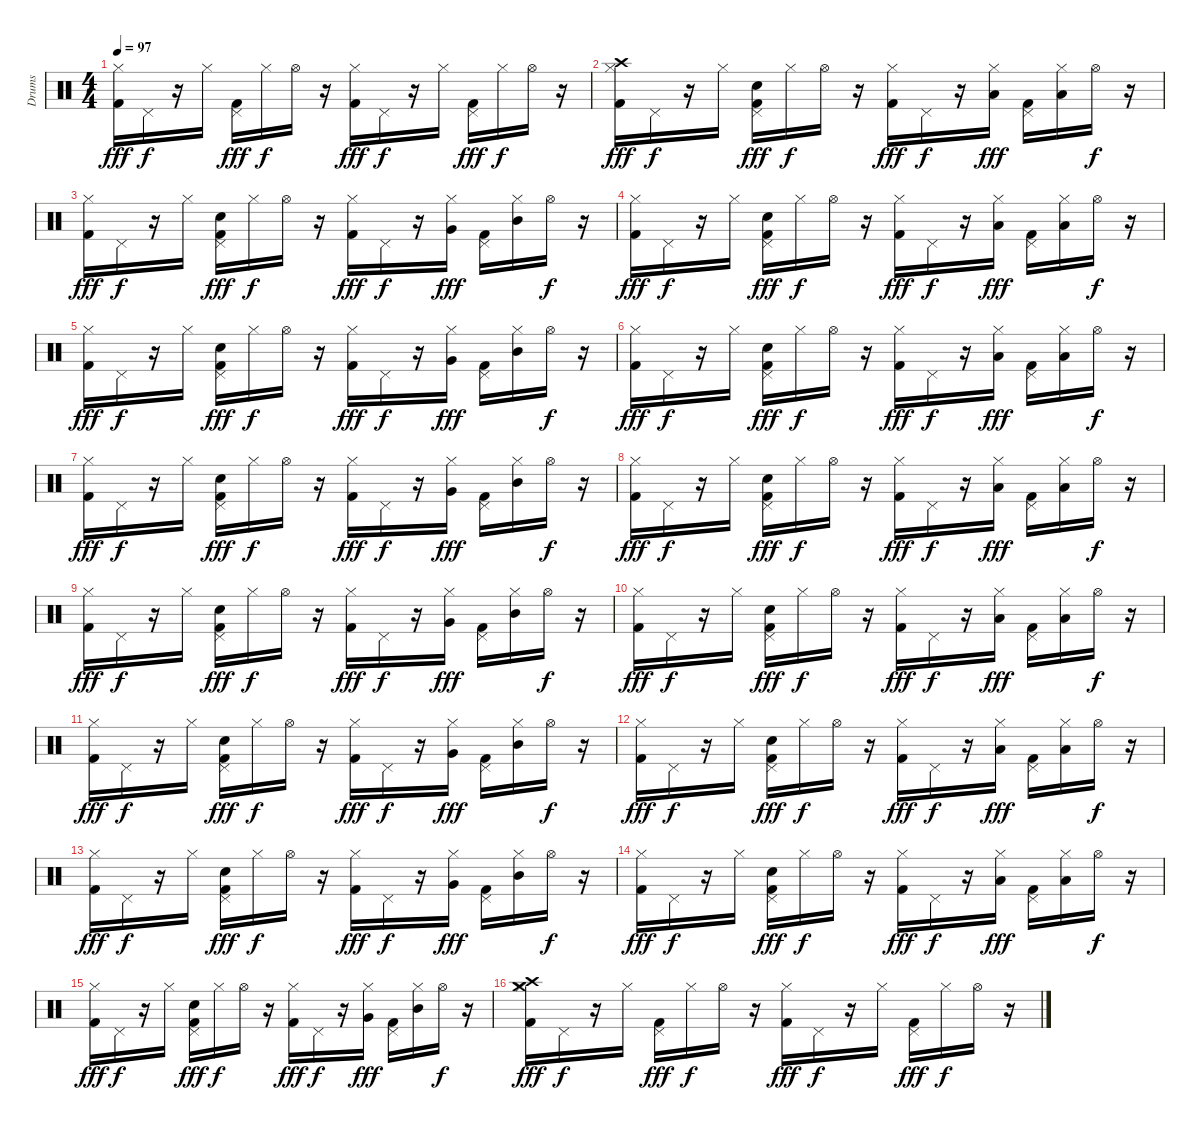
\track ("Drums" "Drums") {instrument percussion}
\staff {score}
\articulation defaults
\ts (4 4)
\tempo 97
\clef neutral
\ks c
("Hi-Hat (closed)" "Kick (hit) 2").16{dy fff} "Pedal Hi-Hat (hit)".16{dy f} r.16 "Hi-Hat (closed)".16 ("Pedal Hi-Hat (hit)" "Kick (hit) 2").16{dy fff} "Hi-Hat (closed)".16{dy f} "Hi-Hat (open)".16 r.16 ("Kick (hit) 2" "Hi-Hat (closed)").16{dy fff} "Pedal Hi-Hat (hit)".16{dy f} r.16 "Hi-Hat (closed)".16 ("Kick (hit) 2" "Pedal Hi-Hat (hit)").16{dy fff} "Hi-Hat (closed)".16{dy f} "Hi-Hat (open)".16 r.16 |
("Crash high (hit)" "Hi-Hat (closed)" "Kick (hit) 2").16{dy fff} "Pedal Hi-Hat (hit)".16{dy f} r.16 "Hi-Hat (closed)".16 ("Snare (hit) 2" "Kick (hit) 2" "Pedal Hi-Hat (hit)").16{dy fff} "Hi-Hat (closed)".16{dy f} "Hi-Hat (open)".16 r.16 ("Hi-Hat (closed)" "Kick (hit) 2").16{dy fff} "Pedal Hi-Hat (hit)".16{dy f} r.16 ("Low Tom (hit)" "Hi-Hat (closed)").16{dy fff} ("Kick (hit) 2" "Pedal Hi-Hat (hit)").16 ("Low Floor Tom (hit)" "Hi-Hat (closed)").16 "Hi-Hat (open)".16{dy f} r.16 |
("Kick (hit) 2" "Hi-Hat (closed)").16{dy fff} "Pedal Hi-Hat (hit)".16{dy f} r.16 "Hi-Hat (closed)".16 ("Electric Snare (hit)" "Pedal Hi-Hat (hit)" "Kick (hit) 2").16{dy fff} "Hi-Hat (closed)".16{dy f} "Hi-Hat (open)".16 r.16 ("Kick (hit) 2" "Hi-Hat (closed)").16{dy fff} "Pedal Hi-Hat (hit)".16{dy f} r.16 ("Very Low Tom (hit)" "Hi-Hat (closed)").16{dy fff} ("Pedal Hi-Hat (hit)" "Kick (hit) 2").16 ("Mid Tom (hit)" "Hi-Hat (closed)").16 "Hi-Hat (open)".16{dy f} r.16 |
("Hi-Hat (closed)" "Kick (hit) 2").16{dy fff} "Pedal Hi-Hat (hit)".16{dy f} r.16 "Hi-Hat (closed)".16 ("Snare (hit) 2" "Kick (hit) 2" "Pedal Hi-Hat (hit)").16{dy fff} "Hi-Hat (closed)".16{dy f} "Hi-Hat (open)".16 r.16 ("Hi-Hat (closed)" "Kick (hit) 2").16{dy fff} "Pedal Hi-Hat (hit)".16{dy f} r.16 ("Low Tom (hit)" "Hi-Hat (closed)").16{dy fff} ("Kick (hit) 2" "Pedal Hi-Hat (hit)").16 ("Low Floor Tom (hit)" "Hi-Hat (closed)").16 "Hi-Hat (open)".16{dy f} r.16 |
("Kick (hit) 2" "Hi-Hat (closed)").16{dy fff} "Pedal Hi-Hat (hit)".16{dy f} r.16 "Hi-Hat (closed)".16 ("Electric Snare (hit)" "Pedal Hi-Hat (hit)" "Kick (hit) 2").16{dy fff} "Hi-Hat (closed)".16{dy f} "Hi-Hat (open)".16 r.16 ("Kick (hit) 2" "Hi-Hat (closed)").16{dy fff} "Pedal Hi-Hat (hit)".16{dy f} r.16 ("Very Low Tom (hit)" "Hi-Hat (closed)").16{dy fff} ("Pedal Hi-Hat (hit)" "Kick (hit) 2").16 ("Mid Tom (hit)" "Hi-Hat (closed)").16 "Hi-Hat (open)".16{dy f} r.16 |
("Hi-Hat (closed)" "Kick (hit) 2").16{dy fff} "Pedal Hi-Hat (hit)".16{dy f} r.16 "Hi-Hat (closed)".16 ("Snare (hit) 2" "Kick (hit) 2" "Pedal Hi-Hat (hit)").16{dy fff} "Hi-Hat (closed)".16{dy f} "Hi-Hat (open)".16 r.16 ("Hi-Hat (closed)" "Kick (hit) 2").16{dy fff} "Pedal Hi-Hat (hit)".16{dy f} r.16 ("Low Tom (hit)" "Hi-Hat (closed)").16{dy fff} ("Kick (hit) 2" "Pedal Hi-Hat (hit)").16 ("Low Floor Tom (hit)" "Hi-Hat (closed)").16 "Hi-Hat (open)".16{dy f} r.16 |
("Kick (hit) 2" "Hi-Hat (closed)").16{dy fff} "Pedal Hi-Hat (hit)".16{dy f} r.16 "Hi-Hat (closed)".16 ("Electric Snare (hit)" "Pedal Hi-Hat (hit)" "Kick (hit) 2").16{dy fff} "Hi-Hat (closed)".16{dy f} "Hi-Hat (open)".16 r.16 ("Kick (hit) 2" "Hi-Hat (closed)").16{dy fff} "Pedal Hi-Hat (hit)".16{dy f} r.16 ("Very Low Tom (hit)" "Hi-Hat (closed)").16{dy fff} ("Pedal Hi-Hat (hit)" "Kick (hit) 2").16 ("Mid Tom (hit)" "Hi-Hat (closed)").16 "Hi-Hat (open)".16{dy f} r.16 |
("Hi-Hat (closed)" "Kick (hit) 2").16{dy fff} "Pedal Hi-Hat (hit)".16{dy f} r.16 "Hi-Hat (closed)".16 ("Snare (hit) 2" "Kick (hit) 2" "Pedal Hi-Hat (hit)").16{dy fff} "Hi-Hat (closed)".16{dy f} "Hi-Hat (open)".16 r.16 ("Hi-Hat (closed)" "Kick (hit) 2").16{dy fff} "Pedal Hi-Hat (hit)".16{dy f} r.16 ("Low Tom (hit)" "Hi-Hat (closed)").16{dy fff} ("Kick (hit) 2" "Pedal Hi-Hat (hit)").16 ("Low Floor Tom (hit)" "Hi-Hat (closed)").16 "Hi-Hat (open)".16{dy f} r.16 |
("Kick (hit) 2" "Hi-Hat (closed)").16{dy fff} "Pedal Hi-Hat (hit)".16{dy f} r.16 "Hi-Hat (closed)".16 ("Electric Snare (hit)" "Pedal Hi-Hat (hit)" "Kick (hit) 2").16{dy fff} "Hi-Hat (closed)".16{dy f} "Hi-Hat (open)".16 r.16 ("Kick (hit) 2" "Hi-Hat (closed)").16{dy fff} "Pedal Hi-Hat (hit)".16{dy f} r.16 ("Very Low Tom (hit)" "Hi-Hat (closed)").16{dy fff} ("Pedal Hi-Hat (hit)" "Kick (hit) 2").16 ("Mid Tom (hit)" "Hi-Hat (closed)").16 "Hi-Hat (open)".16{dy f} r.16 |
("Hi-Hat (closed)" "Kick (hit) 2").16{dy fff} "Pedal Hi-Hat (hit)".16{dy f} r.16 "Hi-Hat (closed)".16 ("Snare (hit) 2" "Kick (hit) 2" "Pedal Hi-Hat (hit)").16{dy fff} "Hi-Hat (closed)".16{dy f} "Hi-Hat (open)".16 r.16 ("Hi-Hat (closed)" "Kick (hit) 2").16{dy fff} "Pedal Hi-Hat (hit)".16{dy f} r.16 ("Low Tom (hit)" "Hi-Hat (closed)").16{dy fff} ("Kick (hit) 2" "Pedal Hi-Hat (hit)").16 ("Low Floor Tom (hit)" "Hi-Hat (closed)").16 "Hi-Hat (open)".16{dy f} r.16 |
("Kick (hit) 2" "Hi-Hat (closed)").16{dy fff} "Pedal Hi-Hat (hit)".16{dy f} r.16 "Hi-Hat (closed)".16 ("Electric Snare (hit)" "Pedal Hi-Hat (hit)" "Kick (hit) 2").16{dy fff} "Hi-Hat (closed)".16{dy f} "Hi-Hat (open)".16 r.16 ("Kick (hit) 2" "Hi-Hat (closed)").16{dy fff} "Pedal Hi-Hat (hit)".16{dy f} r.16 ("Very Low Tom (hit)" "Hi-Hat (closed)").16{dy fff} ("Pedal Hi-Hat (hit)" "Kick (hit) 2").16 ("Mid Tom (hit)" "Hi-Hat (closed)").16 "Hi-Hat (open)".16{dy f} r.16 |
("Hi-Hat (closed)" "Kick (hit) 2").16{dy fff} "Pedal Hi-Hat (hit)".16{dy f} r.16 "Hi-Hat (closed)".16 ("Snare (hit) 2" "Kick (hit) 2" "Pedal Hi-Hat (hit)").16{dy fff} "Hi-Hat (closed)".16{dy f} "Hi-Hat (open)".16 r.16 ("Hi-Hat (closed)" "Kick (hit) 2").16{dy fff} "Pedal Hi-Hat (hit)".16{dy f} r.16 ("Low Tom (hit)" "Hi-Hat (closed)").16{dy fff} ("Kick (hit) 2" "Pedal Hi-Hat (hit)").16 ("Low Floor Tom (hit)" "Hi-Hat (closed)").16 "Hi-Hat (open)".16{dy f} r.16 |
("Kick (hit) 2" "Hi-Hat (closed)").16{dy fff} "Pedal Hi-Hat (hit)".16{dy f} r.16 "Hi-Hat (closed)".16 ("Electric Snare (hit)" "Pedal Hi-Hat (hit)" "Kick (hit) 2").16{dy fff} "Hi-Hat (closed)".16{dy f} "Hi-Hat (open)".16 r.16 ("Kick (hit) 2" "Hi-Hat (closed)").16{dy fff} "Pedal Hi-Hat (hit)".16{dy f} r.16 ("Very Low Tom (hit)" "Hi-Hat (closed)").16{dy fff} ("Pedal Hi-Hat (hit)" "Kick (hit) 2").16 ("Mid Tom (hit)" "Hi-Hat (closed)").16 "Hi-Hat (open)".16{dy f} r.16 |
("Hi-Hat (closed)" "Kick (hit) 2").16{dy fff} "Pedal Hi-Hat (hit)".16{dy f} r.16 "Hi-Hat (closed)".16 ("Snare (hit) 2" "Kick (hit) 2" "Pedal Hi-Hat (hit)").16{dy fff} "Hi-Hat (closed)".16{dy f} "Hi-Hat (open)".16 r.16 ("Hi-Hat (closed)" "Kick (hit) 2").16{dy fff} "Pedal Hi-Hat (hit)".16{dy f} r.16 ("Low Tom (hit)" "Hi-Hat (closed)").16{dy fff} ("Kick (hit) 2" "Pedal Hi-Hat (hit)").16 ("Low Floor Tom (hit)" "Hi-Hat (closed)").16 "Hi-Hat (open)".16{dy f} r.16 |
("Kick (hit) 2" "Hi-Hat (closed)").16{dy fff} "Pedal Hi-Hat (hit)".16{dy f} r.16 "Hi-Hat (closed)".16 ("Electric Snare (hit)" "Pedal Hi-Hat (hit)" "Kick (hit) 2").16{dy fff} "Hi-Hat (closed)".16{dy f} "Hi-Hat (open)".16 r.16 ("Kick (hit) 2" "Hi-Hat (closed)").16{dy fff} "Pedal Hi-Hat (hit)".16{dy f} r.16 ("Hi-Hat (closed)" "Very Low Tom (hit)").16{dy fff} ("Kick (hit) 2" "Pedal Hi-Hat (hit)").16 ("Hi-Hat (closed)" "Mid Tom (hit)").16 "Hi-Hat (open)".16{dy f} r.16 |
("Crash high (hit)" "Crash medium (hit)" "Kick (hit) 2" "Hi-Hat (closed)").16{dy fff} "Pedal Hi-Hat (hit)".16{dy f} r.16 "Hi-Hat (closed)".16 ("Kick (hit) 2" "Pedal Hi-Hat (hit)").16{dy fff} "Hi-Hat (closed)".16{dy f} "Hi-Hat (open)".16 r.16 ("Kick (hit) 2" "Hi-Hat (closed)").16{dy fff} "Pedal Hi-Hat (hit)".16{dy f} r.16 "Hi-Hat (closed)".16 ("Kick (hit) 2" "Pedal Hi-Hat (hit)").16{dy fff} "Hi-Hat (closed)".16{dy f} "Hi-Hat (open)".16 r.16
